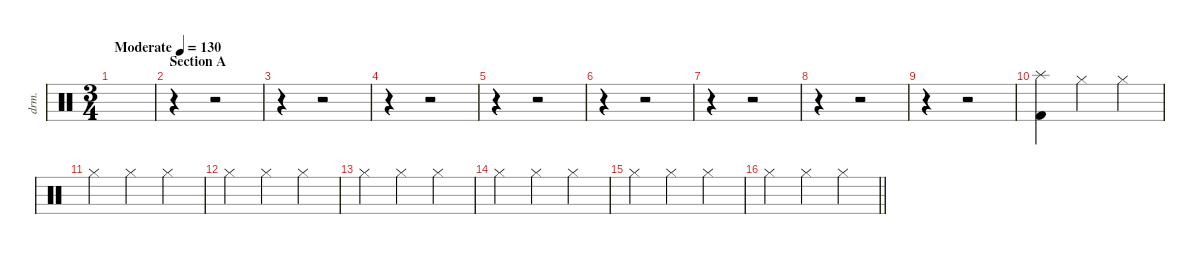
\defaultSystemsLayout 4
\hideDynamics
\bracketExtendMode nobrackets
\otherSystemsTrackNameOrientation horizontal
\track ("Percussion" "drm.") {instrument percussion}
\staff {score}
\articulation defaults
\ts (3 4)
\beaming (8 2 2 2)
\tempo (130 "Moderate")
\clef neutral
\ks c
|
\section ("" "Section A")
r.4{beam Down} r.2{beam Down} |
r.4{beam Down} r.2{beam Down} |
r.4{beam Down} r.2{beam Down} |
r.4{beam Down} r.2{beam Down} |
r.4{beam Down} r.2{beam Down} |
r.4{beam Down} r.2{beam Down} |
r.4{beam Down} r.2{beam Down} |
r.4{beam Down} r.2{beam Down} |
("Splash (hit)" "Kick (hit) 2").4{beam Down} "Hi-Hat (closed)".4{beam Down} "Hi-Hat (closed)".4{beam Down} |
"Hi-Hat (closed)".4{beam Down} "Hi-Hat (closed)".4{beam Down} "Hi-Hat (closed)".4{beam Down} |
"Hi-Hat (closed)".4{beam Down} "Hi-Hat (closed)".4{beam Down} "Hi-Hat (closed)".4{beam Down} |
"Hi-Hat (closed)".4{beam Down} "Hi-Hat (closed)".4{beam Down} "Hi-Hat (closed)".4{beam Down} |
"Hi-Hat (closed)".4{beam Down} "Hi-Hat (closed)".4{beam Down} "Hi-Hat (closed)".4{beam Down} |
"Hi-Hat (closed)".4{beam Down} "Hi-Hat (closed)".4{beam Down} "Hi-Hat (closed)".4{beam Down} |
\barLineRight lightlight "Hi-Hat (closed)".4{beam Down} "Hi-Hat (closed)".4{beam Down} "Hi-Hat (closed)".4{beam Down}
